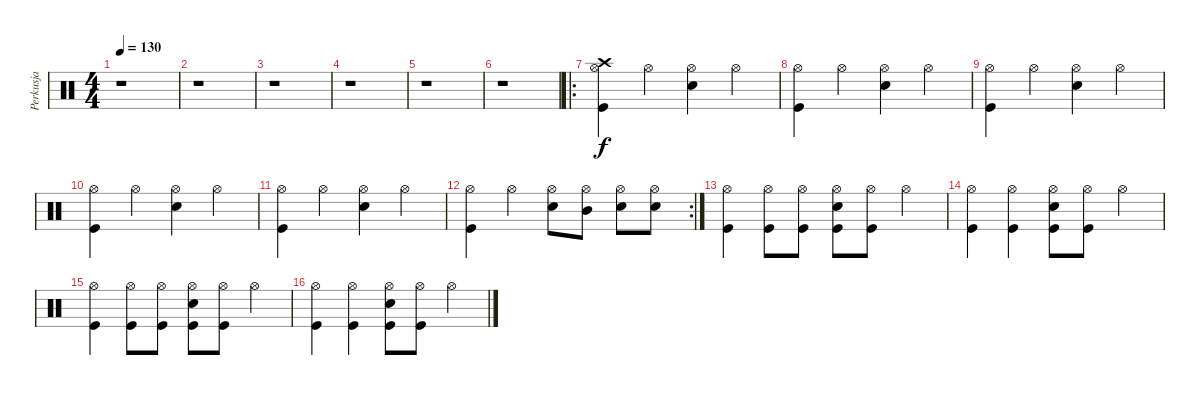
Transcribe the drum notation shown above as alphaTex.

\track ("Perkusja" "Perkusja") {instrument percussion}
\staff {score}
\articulation defaults
\ts (4 4)
\tempo 130
\clef neutral
\ks c
r.1{dy f} |
r.1 |
r.1 |
r.1 |
r.1 |
r.1 |
\ro
("Hi-Hat (open)" "Crash high (hit)" "Kick (hit)").4 "Hi-Hat (open)".4 ("Hi-Hat (open)" "Metronome (bell)").4 "Hi-Hat (open)".4 |
("Hi-Hat (open)" "Kick (hit)").4 "Hi-Hat (open)".4 ("Hi-Hat (open)" "Metronome (bell)").4 "Hi-Hat (open)".4 |
("Hi-Hat (open)" "Kick (hit)").4 "Hi-Hat (open)".4 ("Hi-Hat (open)" "Metronome (bell)").4 "Hi-Hat (open)".4 |
("Hi-Hat (open)" "Kick (hit)").4 "Hi-Hat (open)".4 ("Hi-Hat (open)" "Metronome (bell)").4 "Hi-Hat (open)".4 |
("Hi-Hat (open)" "Kick (hit)").4 "Hi-Hat (open)".4 ("Hi-Hat (open)" "Metronome (bell)").4 "Hi-Hat (open)".4 |
\rc 2
("Hi-Hat (open)" "Kick (hit)").4 "Hi-Hat (open)".4 ("Hi-Hat (open)" "Metronome (bell)").8 ("Hi-Hat (open)" "Mid Tom (hit)").8 ("Hi-Hat (open)" "Metronome (bell)").8 ("Hi-Hat (open)" "Metronome (bell)").8 |
("Hi-Hat (open)" "Kick (hit)").4 ("Hi-Hat (open)" "Kick (hit)").8 ("Hi-Hat (open)" "Kick (hit)").8 ("Hi-Hat (open)" "Metronome (bell)" "Kick (hit)").8 ("Hi-Hat (open)" "Kick (hit)").8 "Hi-Hat (open)".4 |
("Hi-Hat (open)" "Kick (hit)").4 ("Hi-Hat (open)" "Kick (hit)").4 ("Hi-Hat (open)" "Metronome (bell)" "Kick (hit)").8 ("Hi-Hat (open)" "Kick (hit)").8 "Hi-Hat (open)".4 |
("Hi-Hat (open)" "Kick (hit)").4 ("Hi-Hat (open)" "Kick (hit)").8 ("Hi-Hat (open)" "Kick (hit)").8 ("Hi-Hat (open)" "Metronome (bell)" "Kick (hit)").8 ("Hi-Hat (open)" "Kick (hit)").8 "Hi-Hat (open)".4 |
("Hi-Hat (open)" "Kick (hit)").4 ("Hi-Hat (open)" "Kick (hit)").4 ("Hi-Hat (open)" "Metronome (bell)" "Kick (hit)").8 ("Hi-Hat (open)" "Kick (hit)").8 "Hi-Hat (open)".4
